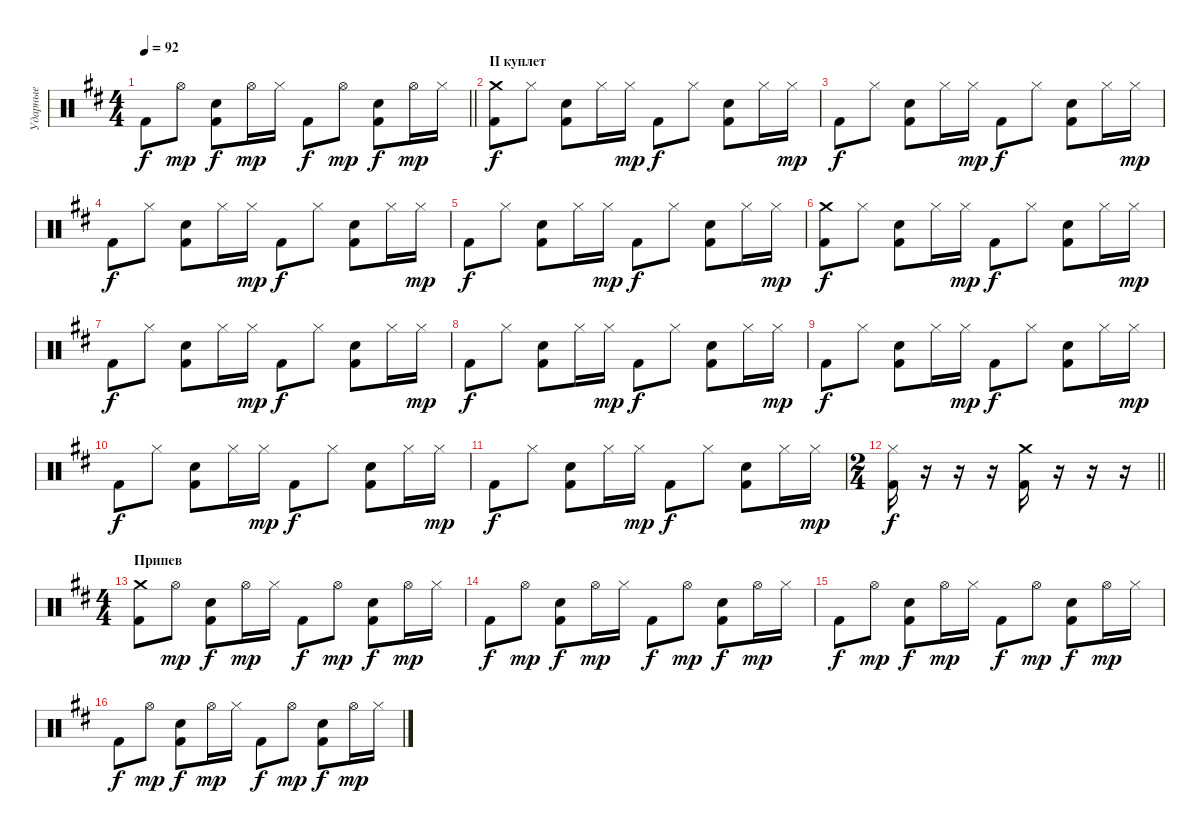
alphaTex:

\track ("Ударные" "Ударные") {instrument percussion}
\staff {score}
\articulation defaults
\ts (4 4)
\tempo 92
\clef neutral
\barLineRight lightlight
\ks bminor "Kick (hit) 2".8{dy f} "Hi-Hat (open)".8{dy mp}
("Electric Snare (hit)" "Kick (hit) 2").8{dy f} "Hi-Hat (open)".16{dy mp} "Hi-Hat (closed)".16 "Kick (hit) 2".8{dy f} "Hi-Hat (open)".8{dy mp} ("Electric Snare (hit)" "Kick (hit) 2").8{dy f} "Hi-Hat (open)".16{dy mp} "Hi-Hat (closed)".16 |
\section ("" "II куплет")
("Crash medium (hit)" "Kick (hit) 2").8{dy f} "Hi-Hat (closed)".8 ("Electric Snare (hit)" "Kick (hit) 2").8 "Hi-Hat (closed)".16 "Hi-Hat (closed)".16{dy mp} "Kick (hit) 2".8{dy f} "Hi-Hat (closed)".8 ("Electric Snare (hit)" "Kick (hit) 2").8 "Hi-Hat (closed)".16 "Hi-Hat (closed)".16{dy mp} |
"Kick (hit) 2".8{dy f} "Hi-Hat (closed)".8 ("Electric Snare (hit)" "Kick (hit) 2").8 "Hi-Hat (closed)".16 "Hi-Hat (closed)".16{dy mp} "Kick (hit) 2".8{dy f} "Hi-Hat (closed)".8 ("Electric Snare (hit)" "Kick (hit) 2").8 "Hi-Hat (closed)".16 "Hi-Hat (closed)".16{dy mp} |
"Kick (hit) 2".8{dy f} "Hi-Hat (closed)".8 ("Electric Snare (hit)" "Kick (hit) 2").8 "Hi-Hat (closed)".16 "Hi-Hat (closed)".16{dy mp} "Kick (hit) 2".8{dy f} "Hi-Hat (closed)".8 ("Electric Snare (hit)" "Kick (hit) 2").8 "Hi-Hat (closed)".16 "Hi-Hat (closed)".16{dy mp} |
"Kick (hit) 2".8{dy f} "Hi-Hat (closed)".8 ("Electric Snare (hit)" "Kick (hit) 2").8 "Hi-Hat (closed)".16 "Hi-Hat (closed)".16{dy mp} "Kick (hit) 2".8{dy f} "Hi-Hat (closed)".8 ("Electric Snare (hit)" "Kick (hit) 2").8 "Hi-Hat (closed)".16 "Hi-Hat (closed)".16{dy mp} |
("Crash medium (hit)" "Kick (hit) 2").8{dy f} "Hi-Hat (closed)".8 ("Electric Snare (hit)" "Kick (hit) 2").8 "Hi-Hat (closed)".16 "Hi-Hat (closed)".16{dy mp} "Kick (hit) 2".8{dy f} "Hi-Hat (closed)".8 ("Electric Snare (hit)" "Kick (hit) 2").8 "Hi-Hat (closed)".16 "Hi-Hat (closed)".16{dy mp} |
"Kick (hit) 2".8{dy f} "Hi-Hat (closed)".8 ("Electric Snare (hit)" "Kick (hit) 2").8 "Hi-Hat (closed)".16 "Hi-Hat (closed)".16{dy mp} "Kick (hit) 2".8{dy f} "Hi-Hat (closed)".8 ("Electric Snare (hit)" "Kick (hit) 2").8 "Hi-Hat (closed)".16 "Hi-Hat (closed)".16{dy mp} |
"Kick (hit) 2".8{dy f} "Hi-Hat (closed)".8 ("Electric Snare (hit)" "Kick (hit) 2").8 "Hi-Hat (closed)".16 "Hi-Hat (closed)".16{dy mp} "Kick (hit) 2".8{dy f} "Hi-Hat (closed)".8 ("Electric Snare (hit)" "Kick (hit) 2").8 "Hi-Hat (closed)".16 "Hi-Hat (closed)".16{dy mp} |
"Kick (hit) 2".8{dy f} "Hi-Hat (closed)".8 ("Electric Snare (hit)" "Kick (hit) 2").8 "Hi-Hat (closed)".16 "Hi-Hat (closed)".16{dy mp} "Kick (hit) 2".8{dy f} "Hi-Hat (closed)".8 ("Electric Snare (hit)" "Kick (hit) 2").8 "Hi-Hat (closed)".16 "Hi-Hat (closed)".16{dy mp} |
"Kick (hit) 2".8{dy f} "Hi-Hat (closed)".8 ("Electric Snare (hit)" "Kick (hit) 2").8 "Hi-Hat (closed)".16 "Hi-Hat (closed)".16{dy mp} "Kick (hit) 2".8{dy f} "Hi-Hat (closed)".8 ("Electric Snare (hit)" "Kick (hit) 2").8 "Hi-Hat (closed)".16 "Hi-Hat (closed)".16{dy mp} |
"Kick (hit) 2".8{dy f} "Hi-Hat (closed)".8 ("Electric Snare (hit)" "Kick (hit) 2").8 "Hi-Hat (closed)".16 "Hi-Hat (closed)".16{dy mp} "Kick (hit) 2".8{dy f} "Hi-Hat (closed)".8 ("Electric Snare (hit)" "Kick (hit) 2").8 "Hi-Hat (closed)".16 "Hi-Hat (closed)".16{dy mp} |
\ts (2 4)
\barLineRight lightlight
("Hi-Hat (closed)" "Kick (hit) 2").16{dy f} r.16 r.16 r.16 ("Crash medium (hit)" "Kick (hit) 2").16 r.16 r.16 r.16 |
\ts (4 4)
\section ("" "Припев")
("Crash medium (hit)" "Kick (hit) 2").8 "Hi-Hat (open)".8{dy mp} ("Electric Snare (hit)" "Kick (hit) 2").8{dy f} "Hi-Hat (open)".16{dy mp} "Hi-Hat (closed)".16 "Kick (hit) 2".8{dy f} "Hi-Hat (open)".8{dy mp} ("Electric Snare (hit)" "Kick (hit) 2").8{dy f} "Hi-Hat (open)".16{dy mp} "Hi-Hat (closed)".16 |
"Kick (hit) 2".8{dy f} "Hi-Hat (open)".8{dy mp} ("Electric Snare (hit)" "Kick (hit) 2").8{dy f} "Hi-Hat (open)".16{dy mp} "Hi-Hat (closed)".16 "Kick (hit) 2".8{dy f} "Hi-Hat (open)".8{dy mp} ("Electric Snare (hit)" "Kick (hit) 2").8{dy f} "Hi-Hat (open)".16{dy mp} "Hi-Hat (closed)".16 |
"Kick (hit) 2".8{dy f} "Hi-Hat (open)".8{dy mp} ("Electric Snare (hit)" "Kick (hit) 2").8{dy f} "Hi-Hat (open)".16{dy mp} "Hi-Hat (closed)".16 "Kick (hit) 2".8{dy f} "Hi-Hat (open)".8{dy mp} ("Electric Snare (hit)" "Kick (hit) 2").8{dy f} "Hi-Hat (open)".16{dy mp} "Hi-Hat (closed)".16 |
"Kick (hit) 2".8{dy f} "Hi-Hat (open)".8{dy mp} ("Electric Snare (hit)" "Kick (hit) 2").8{dy f} "Hi-Hat (open)".16{dy mp} "Hi-Hat (closed)".16 "Kick (hit) 2".8{dy f} "Hi-Hat (open)".8{dy mp} ("Electric Snare (hit)" "Kick (hit) 2").8{dy f} "Hi-Hat (open)".16{dy mp} "Hi-Hat (closed)".16
